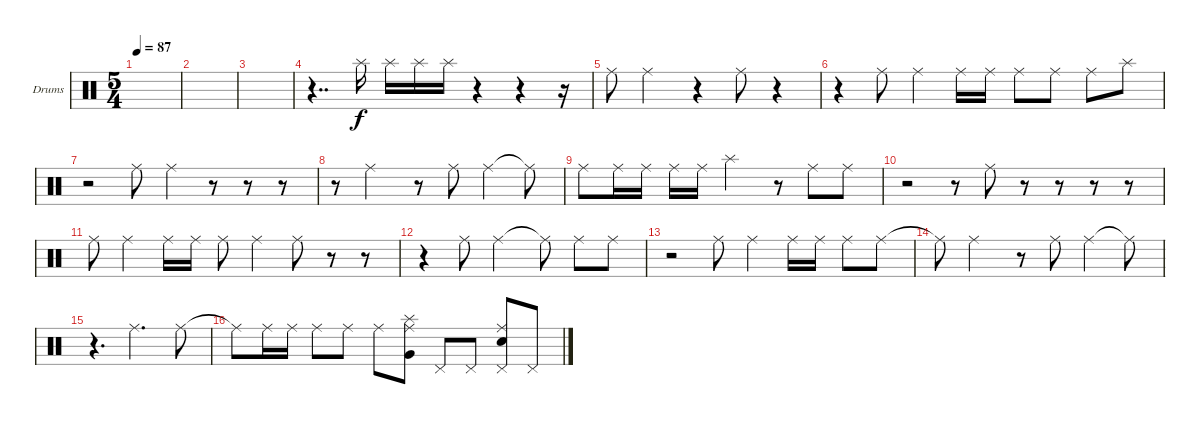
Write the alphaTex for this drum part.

\defaultSystemsLayout 4
\bracketExtendMode groupsimilarinstruments
\firstSystemTrackNameOrientation horizontal
\otherSystemsTrackNameOrientation horizontal
\track ("Drumkit" "Drums") {instrument percussion}
\staff {score}
\articulation defaults
\ts (5 4)
\tempo 87
\clef neutral
\ks c
|
|
|
r.4{dd} "Splash (hit)".16 "Splash (hit)".16 "Splash (hit)".16 "Splash (hit)".16 r.4 r.4 r.16 |
"Ride (middle)".8 "Ride (middle)".2 r.4 "Ride (middle)".8 r.4 |
r.4 "Ride (middle)".8 "Ride (middle)".4 "Ride (middle)".16 "Ride (middle)".16 "Ride (middle)".8 "Ride (middle)".8 "Ride (middle)".8 "Splash (hit)".8 |
r.2 "Ride (middle)".8 "Ride (middle)".4 r.8 r.8 r.8 |
r.8 "Ride (middle)".2 r.8 "Ride (middle)".8 "Ride (middle)".4 "Ride (middle)"{t}.8 |
"Ride (middle)".8 "Ride (middle)".16 "Ride (middle)".16 "Ride (middle)".16 "Ride (middle)".16 "Splash (hit)".2 r.8 "Ride (middle)".8 "Ride (middle)".8 |
r.2 r.8 "Ride (middle)".8 r.8 r.8 r.8 r.8 |
"Ride (middle)".8 "Ride (middle)".4 "Ride (middle)".16 "Ride (middle)".16 "Ride (middle)".8 "Ride (middle)".4 "Ride (middle)".8 r.8 r.8 |
r.4 "Ride (middle)".8 "Ride (middle)".2 "Ride (middle)"{t}.8 "Ride (middle)".8 "Ride (middle)".8 |
r.2 "Ride (middle)".8 "Ride (middle)".4 "Ride (middle)".16 "Ride (middle)".16 "Ride (middle)".8 "Ride (middle)".8 |
"Ride (middle)"{t}.8 "Ride (middle)".2 r.8 "Ride (middle)".8 "Ride (middle)".4 "Ride (middle)"{t}.8 |
r.4{d} "Ride (middle)".2{d} "Ride (middle)".8 |
"Ride (middle)"{t}.8 "Ride (middle)".16 "Ride (middle)".16 "Ride (middle)".8 "Ride (middle)".8 "Ride (middle)".8 ("Splash (hit)" "Ride (middle)" "Very Low Tom (hit)").8 "Pedal Hi-Hat (hit)".8 "Pedal Hi-Hat (hit)".8 ("Pedal Hi-Hat (hit)" "Snare (hit) 2" "Ride (middle)").8 "Pedal Hi-Hat (hit)".8
